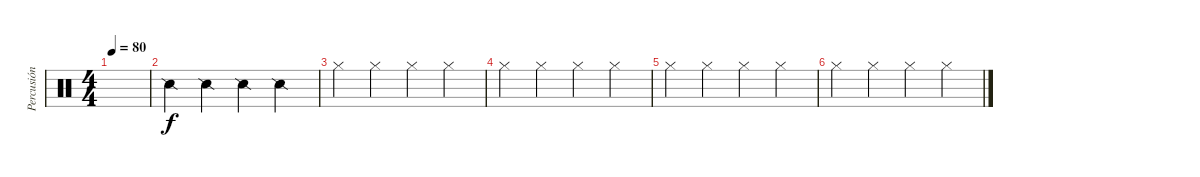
\track ("Percusión" "Percusión") {instrument percussion}
\staff {score}
\articulation defaults
\ts (4 4)
\tempo 80
\clef neutral
\ks c
|
"Snare (side stick) 2".4 "Snare (side stick) 2".4 "Snare (side stick) 2".4 "Snare (side stick) 2".4 |
"Hi-Hat (closed)".4 "Hi-Hat (closed)".4 "Hi-Hat (closed)".4 "Hi-Hat (closed)".4 |
"Hi-Hat (closed)".4 "Hi-Hat (closed)".4 "Hi-Hat (closed)".4 "Hi-Hat (closed)".4 |
"Hi-Hat (closed)".4 "Hi-Hat (closed)".4 "Hi-Hat (closed)".4 "Hi-Hat (closed)".4 |
"Hi-Hat (closed)".4 "Hi-Hat (closed)".4 "Hi-Hat (closed)".4 "Hi-Hat (closed)".4
